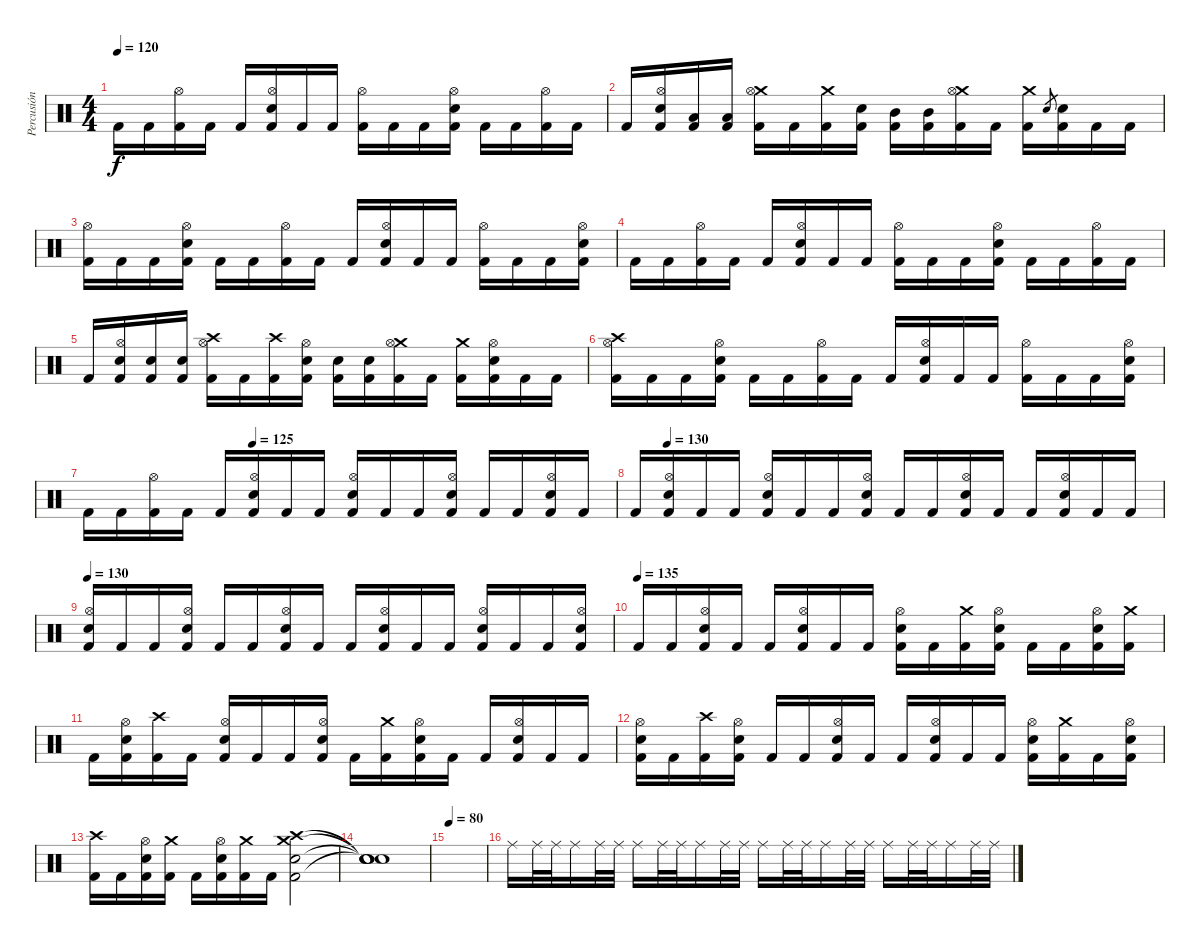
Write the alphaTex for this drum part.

\track ("Percusión" "Percusión") {instrument percussion}
\staff {score}
\articulation defaults
\ts (4 4)
\tempo 120
\clef neutral
\ks c "Kick (hit) 2".16{dy f} "Kick (hit) 2".16
("Kick (hit) 2" "Hi-Hat (open)").16 "Kick (hit) 2".16 "Kick (hit) 2".16 ("Kick (hit) 2" "Hi-Hat (open)" "Electric Snare (hit)").16 "Kick (hit) 2".16 "Kick (hit) 2".16 ("Kick (hit) 2" "Hi-Hat (open)").16 "Kick (hit) 2".16 "Kick (hit) 2".16 ("Kick (hit) 2" "Hi-Hat (open)" "Electric Snare (hit)").16 "Kick (hit) 2".16 "Kick (hit) 2".16 ("Kick (hit) 2" "Hi-Hat (open)").16 "Kick (hit) 2".16 |
"Kick (hit) 2".16 ("Kick (hit) 2" "Hi-Hat (open)" "Electric Snare (hit)").16 ("Kick (hit) 2" "Low Tom (hit)").16 ("Kick (hit) 2" "Low Tom (hit)").16 ("Kick (hit) 2" "Crash medium (hit)" "Hi-Hat (open)").16 "Kick (hit) 2".16 ("Kick (hit) 2" "Crash medium (hit)").16 ("Kick (hit) 2" "Electric Snare (hit)").16 ("Kick (hit) 2" "Mid Tom (hit)").16 ("Kick (hit) 2" "Mid Tom (hit)").16 ("Kick (hit) 2" "Crash medium (hit)" "Hi-Hat (open)").16 "Kick (hit) 2".16 ("Kick (hit) 2" "Crash medium (hit)").16 "Electric Snare (hit)".8{gr} ("Kick (hit) 2" "Electric Snare (hit)").16 "Kick (hit) 2".16 "Kick (hit) 2".16 |
("Kick (hit) 2" "Hi-Hat (open)").16 "Kick (hit) 2".16 "Kick (hit) 2".16 ("Kick (hit) 2" "Hi-Hat (open)" "Electric Snare (hit)").16 "Kick (hit) 2".16 "Kick (hit) 2".16 ("Kick (hit) 2" "Hi-Hat (open)").16 "Kick (hit) 2".16 "Kick (hit) 2".16 ("Kick (hit) 2" "Hi-Hat (open)" "Electric Snare (hit)").16 "Kick (hit) 2".16 "Kick (hit) 2".16 ("Kick (hit) 2" "Hi-Hat (open)").16 "Kick (hit) 2".16 "Kick (hit) 2".16 ("Kick (hit) 2" "Hi-Hat (open)" "Electric Snare (hit)").16 |
"Kick (hit) 2".16 "Kick (hit) 2".16 ("Kick (hit) 2" "Hi-Hat (open)").16 "Kick (hit) 2".16 "Kick (hit) 2".16 ("Kick (hit) 2" "Hi-Hat (open)" "Electric Snare (hit)").16 "Kick (hit) 2".16 "Kick (hit) 2".16 ("Kick (hit) 2" "Hi-Hat (open)").16 "Kick (hit) 2".16 "Kick (hit) 2".16 ("Kick (hit) 2" "Hi-Hat (open)" "Electric Snare (hit)").16 "Kick (hit) 2".16 "Kick (hit) 2".16 ("Kick (hit) 2" "Hi-Hat (open)").16 "Kick (hit) 2".16 |
"Kick (hit) 2".16 ("Kick (hit) 2" "Hi-Hat (open)" "Electric Snare (hit)").16 ("Kick (hit) 2" "Electric Snare (hit)").16 ("Kick (hit) 2" "Electric Snare (hit)").16 ("Kick (hit) 2" "Crash high (hit)" "Hi-Hat (open)").16 "Kick (hit) 2".16 ("Kick (hit) 2" "Crash high (hit)").16 ("Kick (hit) 2" "Hi-Hat (open)" "Electric Snare (hit)").16 ("Kick (hit) 2" "Electric Snare (hit)").16 ("Kick (hit) 2" "Electric Snare (hit)").16 ("Kick (hit) 2" "Crash medium (hit)" "Hi-Hat (open)").16 "Kick (hit) 2".16 ("Kick (hit) 2" "Crash medium (hit)").16 ("Kick (hit) 2" "Hi-Hat (open)" "Electric Snare (hit)").16 "Kick (hit) 2".16 "Kick (hit) 2".16 |
("Kick (hit) 2" "Crash high (hit)" "Hi-Hat (open)").16 "Kick (hit) 2".16 "Kick (hit) 2".16 ("Kick (hit) 2" "Hi-Hat (open)" "Electric Snare (hit)").16 "Kick (hit) 2".16 "Kick (hit) 2".16 ("Kick (hit) 2" "Hi-Hat (open)").16 "Kick (hit) 2".16 "Kick (hit) 2".16 ("Kick (hit) 2" "Hi-Hat (open)" "Electric Snare (hit)").16 "Kick (hit) 2".16 "Kick (hit) 2".16 ("Kick (hit) 2" "Hi-Hat (open)").16 "Kick (hit) 2".16 "Kick (hit) 2".16 ("Kick (hit) 2" "Hi-Hat (open)" "Electric Snare (hit)").16 |
\tempo (125 0.3125)
"Kick (hit) 2".16 "Kick (hit) 2".16 ("Kick (hit) 2" "Hi-Hat (open)").16 "Kick (hit) 2".16 "Kick (hit) 2".16 ("Kick (hit) 2" "Hi-Hat (open)" "Electric Snare (hit)").16 "Kick (hit) 2".16 "Kick (hit) 2".16 ("Kick (hit) 2" "Electric Snare (hit)" "Hi-Hat (open)").16 "Kick (hit) 2".16 "Kick (hit) 2".16 ("Kick (hit) 2" "Hi-Hat (open)" "Electric Snare (hit)").16 "Kick (hit) 2".16 "Kick (hit) 2".16 ("Kick (hit) 2" "Electric Snare (hit)" "Hi-Hat (open)").16 "Kick (hit) 2".16 |
\tempo (130 0.0625)
"Kick (hit) 2".16 ("Kick (hit) 2" "Hi-Hat (open)" "Electric Snare (hit)").16 "Kick (hit) 2".16 "Kick (hit) 2".16 ("Kick (hit) 2" "Electric Snare (hit)" "Hi-Hat (open)").16 "Kick (hit) 2".16 "Kick (hit) 2".16 ("Kick (hit) 2" "Hi-Hat (open)" "Electric Snare (hit)").16 "Kick (hit) 2".16 "Kick (hit) 2".16 ("Kick (hit) 2" "Electric Snare (hit)" "Hi-Hat (open)").16 "Kick (hit) 2".16 "Kick (hit) 2".16 ("Kick (hit) 2" "Hi-Hat (open)" "Electric Snare (hit)").16 "Kick (hit) 2".16 "Kick (hit) 2".16 |
\tempo 130
("Kick (hit) 2" "Electric Snare (hit)" "Hi-Hat (open)").16 "Kick (hit) 2".16 "Kick (hit) 2".16 ("Kick (hit) 2" "Hi-Hat (open)" "Electric Snare (hit)").16 "Kick (hit) 2".16 "Kick (hit) 2".16 ("Kick (hit) 2" "Electric Snare (hit)" "Hi-Hat (open)").16 "Kick (hit) 2".16 "Kick (hit) 2".16 ("Kick (hit) 2" "Hi-Hat (open)" "Electric Snare (hit)").16 "Kick (hit) 2".16 "Kick (hit) 2".16 ("Kick (hit) 2" "Electric Snare (hit)" "Hi-Hat (open)").16 "Kick (hit) 2".16 "Kick (hit) 2".16 ("Kick (hit) 2" "Hi-Hat (open)" "Electric Snare (hit)").16 |
\tempo (135)
"Kick (hit) 2".16 "Kick (hit) 2".16 ("Kick (hit) 2" "Electric Snare (hit)" "Hi-Hat (open)").16 "Kick (hit) 2".16 "Kick (hit) 2".16 ("Kick (hit) 2" "Hi-Hat (open)" "Electric Snare (hit)").16 "Kick (hit) 2".16 "Kick (hit) 2".16 ("Kick (hit) 2" "Electric Snare (hit)" "Hi-Hat (open)").16 "Kick (hit) 2".16 ("Kick (hit) 2" "Crash medium (hit)").16 ("Kick (hit) 2" "Hi-Hat (open)" "Electric Snare (hit)").16 "Kick (hit) 2".16 "Kick (hit) 2".16 ("Kick (hit) 2" "Electric Snare (hit)" "Hi-Hat (open)").16 ("Kick (hit) 2" "Crash medium (hit)").16 |
"Kick (hit) 2".16 ("Kick (hit) 2" "Hi-Hat (open)" "Electric Snare (hit)").16 ("Kick (hit) 2" "Crash high (hit)").16 "Kick (hit) 2".16 ("Kick (hit) 2" "Electric Snare (hit)" "Hi-Hat (open)").16 "Kick (hit) 2".16 "Kick (hit) 2".16 ("Kick (hit) 2" "Hi-Hat (open)" "Electric Snare (hit)").16 "Kick (hit) 2".16 ("Kick (hit) 2" "Crash medium (hit)").16 ("Kick (hit) 2" "Electric Snare (hit)" "Hi-Hat (open)").16 "Kick (hit) 2".16 "Kick (hit) 2".16 ("Kick (hit) 2" "Hi-Hat (open)" "Electric Snare (hit)").16 "Kick (hit) 2".16 "Kick (hit) 2".16 |
("Kick (hit) 2" "Electric Snare (hit)" "Hi-Hat (open)").16 "Kick (hit) 2".16 ("Kick (hit) 2" "Crash high (hit)").16 ("Kick (hit) 2" "Hi-Hat (open)" "Electric Snare (hit)").16 "Kick (hit) 2".16 "Kick (hit) 2".16 ("Kick (hit) 2" "Electric Snare (hit)" "Hi-Hat (open)").16 "Kick (hit) 2".16 "Kick (hit) 2".16 ("Kick (hit) 2" "Hi-Hat (open)" "Electric Snare (hit)").16 "Kick (hit) 2".16 "Kick (hit) 2".16 ("Kick (hit) 2" "Electric Snare (hit)" "Hi-Hat (open)").16 ("Kick (hit) 2" "Crash medium (hit)").16 "Kick (hit) 2".16 ("Kick (hit) 2" "Hi-Hat (open)" "Electric Snare (hit)").16 |
("Kick (hit) 2" "Crash high (hit)").16 "Kick (hit) 2".16 ("Kick (hit) 2" "Electric Snare (hit)" "Hi-Hat (open)").16 ("Kick (hit) 2" "Crash medium (hit)").16 "Kick (hit) 2".16 ("Kick (hit) 2" "Electric Snare (hit)" "Hi-Hat (open)").16 ("Kick (hit) 2" "Crash medium (hit)").16 "Kick (hit) 2".16 ("Kick (hit) 2" "Electric Snare (hit)" "Crash medium (hit)" "Crash high (hit)").2 |
("Snare (hit)"{t} "Snare (hit)"{t} "Snare (hit)"{t} "Snare (hit)"{t}).1 |
\tempo 80
|
"Ride (middle)".16 "Ride (middle)".32 "Ride (middle)".32 "Ride (middle)".16 "Ride (middle)".32 "Ride (middle)".32 "Ride (middle)".16 "Ride (middle)".32 "Ride (middle)".32 "Ride (middle)".16 "Ride (middle)".32 "Ride (middle)".32 "Ride (middle)".16 "Ride (middle)".32 "Ride (middle)".32 "Ride (middle)".16 "Ride (middle)".32 "Ride (middle)".32 "Ride (middle)".16 "Ride (middle)".32 "Ride (middle)".32 "Ride (middle)".16 "Ride (middle)".32 "Ride (middle)".32
